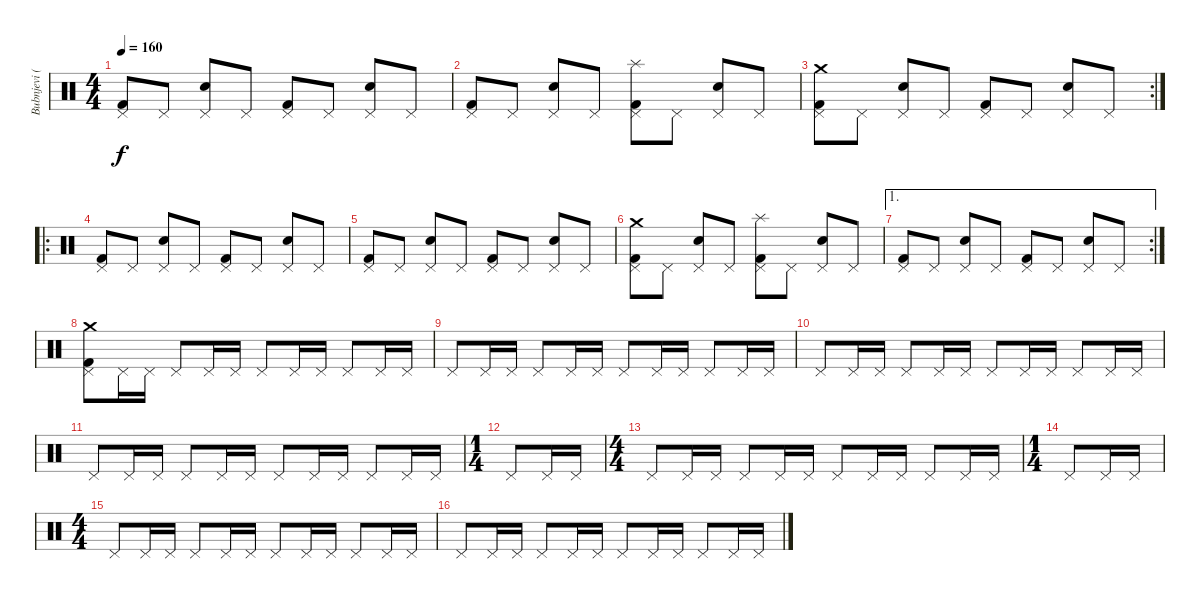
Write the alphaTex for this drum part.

\track ("Bubnjevi (Nasko Budimic)" "Bubnjevi (") {instrument percussion}
\staff {score}
\articulation defaults
\ts (4 4)
\tempo 160
\clef neutral
\ks c
("Pedal Hi-Hat (hit)" "Kick (hit) 2").8{dy f} "Pedal Hi-Hat (hit)".8 ("Pedal Hi-Hat (hit)" "Snare (hit) 2").8 "Pedal Hi-Hat (hit)".8 ("Pedal Hi-Hat (hit)" "Kick (hit) 2").8 "Pedal Hi-Hat (hit)".8 ("Pedal Hi-Hat (hit)" "Snare (hit) 2").8 "Pedal Hi-Hat (hit)".8 |
("Pedal Hi-Hat (hit)" "Kick (hit) 2").8 "Pedal Hi-Hat (hit)".8 ("Pedal Hi-Hat (hit)" "Snare (hit) 2").8 "Pedal Hi-Hat (hit)".8 ("Splash (hit)" "Pedal Hi-Hat (hit)" "Kick (hit) 2").8 "Pedal Hi-Hat (hit)".8 ("Pedal Hi-Hat (hit)" "Snare (hit) 2").8 "Pedal Hi-Hat (hit)".8 |
\rc 2
("Crash medium (hit)" "Pedal Hi-Hat (hit)" "Kick (hit) 2").8 "Pedal Hi-Hat (hit)".8 ("Pedal Hi-Hat (hit)" "Snare (hit) 2").8 "Pedal Hi-Hat (hit)".8 ("Pedal Hi-Hat (hit)" "Kick (hit) 2").8 "Pedal Hi-Hat (hit)".8 ("Pedal Hi-Hat (hit)" "Snare (hit) 2").8 "Pedal Hi-Hat (hit)".8 |
\ro
("Pedal Hi-Hat (hit)" "Kick (hit) 2").8 "Pedal Hi-Hat (hit)".8 ("Pedal Hi-Hat (hit)" "Snare (hit) 2").8 "Pedal Hi-Hat (hit)".8 ("Pedal Hi-Hat (hit)" "Kick (hit) 2").8 "Pedal Hi-Hat (hit)".8 ("Pedal Hi-Hat (hit)" "Snare (hit) 2").8 "Pedal Hi-Hat (hit)".8 |
("Pedal Hi-Hat (hit)" "Kick (hit) 2").8 "Pedal Hi-Hat (hit)".8 ("Pedal Hi-Hat (hit)" "Snare (hit) 2").8 "Pedal Hi-Hat (hit)".8 ("Pedal Hi-Hat (hit)" "Kick (hit) 2").8 "Pedal Hi-Hat (hit)".8 ("Pedal Hi-Hat (hit)" "Snare (hit) 2").8 "Pedal Hi-Hat (hit)".8 |
("Crash medium (hit)" "Pedal Hi-Hat (hit)" "Kick (hit) 2").8 "Pedal Hi-Hat (hit)".8 ("Pedal Hi-Hat (hit)" "Snare (hit) 2").8 "Pedal Hi-Hat (hit)".8 ("Splash (hit)" "Pedal Hi-Hat (hit)" "Kick (hit) 2").8 "Pedal Hi-Hat (hit)".8 ("Pedal Hi-Hat (hit)" "Snare (hit) 2").8 "Pedal Hi-Hat (hit)".8 |
\ae 1
\rc 2
("Pedal Hi-Hat (hit)" "Kick (hit) 2").8 "Pedal Hi-Hat (hit)".8 ("Pedal Hi-Hat (hit)" "Snare (hit) 2").8 "Pedal Hi-Hat (hit)".8 ("Pedal Hi-Hat (hit)" "Kick (hit) 2").8 "Pedal Hi-Hat (hit)".8 ("Pedal Hi-Hat (hit)" "Snare (hit) 2").8 "Pedal Hi-Hat (hit)".8 |
("Crash medium (hit)" "Pedal Hi-Hat (hit)" "Kick (hit) 2").8 "Pedal Hi-Hat (hit)".16 "Pedal Hi-Hat (hit)".16 "Pedal Hi-Hat (hit)".8 "Pedal Hi-Hat (hit)".16 "Pedal Hi-Hat (hit)".16 "Pedal Hi-Hat (hit)".8 "Pedal Hi-Hat (hit)".16 "Pedal Hi-Hat (hit)".16 "Pedal Hi-Hat (hit)".8 "Pedal Hi-Hat (hit)".16 "Pedal Hi-Hat (hit)".16 |
"Pedal Hi-Hat (hit)".8 "Pedal Hi-Hat (hit)".16 "Pedal Hi-Hat (hit)".16 "Pedal Hi-Hat (hit)".8 "Pedal Hi-Hat (hit)".16 "Pedal Hi-Hat (hit)".16 "Pedal Hi-Hat (hit)".8 "Pedal Hi-Hat (hit)".16 "Pedal Hi-Hat (hit)".16 "Pedal Hi-Hat (hit)".8 "Pedal Hi-Hat (hit)".16 "Pedal Hi-Hat (hit)".16 |
"Pedal Hi-Hat (hit)".8 "Pedal Hi-Hat (hit)".16 "Pedal Hi-Hat (hit)".16 "Pedal Hi-Hat (hit)".8 "Pedal Hi-Hat (hit)".16 "Pedal Hi-Hat (hit)".16 "Pedal Hi-Hat (hit)".8 "Pedal Hi-Hat (hit)".16 "Pedal Hi-Hat (hit)".16 "Pedal Hi-Hat (hit)".8 "Pedal Hi-Hat (hit)".16 "Pedal Hi-Hat (hit)".16 |
"Pedal Hi-Hat (hit)".8 "Pedal Hi-Hat (hit)".16 "Pedal Hi-Hat (hit)".16 "Pedal Hi-Hat (hit)".8 "Pedal Hi-Hat (hit)".16 "Pedal Hi-Hat (hit)".16 "Pedal Hi-Hat (hit)".8 "Pedal Hi-Hat (hit)".16 "Pedal Hi-Hat (hit)".16 "Pedal Hi-Hat (hit)".8 "Pedal Hi-Hat (hit)".16 "Pedal Hi-Hat (hit)".16 |
\ts (1 4)
"Pedal Hi-Hat (hit)".8 "Pedal Hi-Hat (hit)".16 "Pedal Hi-Hat (hit)".16 |
\ts (4 4)
"Pedal Hi-Hat (hit)".8 "Pedal Hi-Hat (hit)".16 "Pedal Hi-Hat (hit)".16 "Pedal Hi-Hat (hit)".8 "Pedal Hi-Hat (hit)".16 "Pedal Hi-Hat (hit)".16 "Pedal Hi-Hat (hit)".8 "Pedal Hi-Hat (hit)".16 "Pedal Hi-Hat (hit)".16 "Pedal Hi-Hat (hit)".8 "Pedal Hi-Hat (hit)".16 "Pedal Hi-Hat (hit)".16 |
\ts (1 4)
"Pedal Hi-Hat (hit)".8 "Pedal Hi-Hat (hit)".16 "Pedal Hi-Hat (hit)".16 |
\ts (4 4)
"Pedal Hi-Hat (hit)".8 "Pedal Hi-Hat (hit)".16 "Pedal Hi-Hat (hit)".16 "Pedal Hi-Hat (hit)".8 "Pedal Hi-Hat (hit)".16 "Pedal Hi-Hat (hit)".16 "Pedal Hi-Hat (hit)".8 "Pedal Hi-Hat (hit)".16 "Pedal Hi-Hat (hit)".16 "Pedal Hi-Hat (hit)".8 "Pedal Hi-Hat (hit)".16 "Pedal Hi-Hat (hit)".16 |
"Pedal Hi-Hat (hit)".8 "Pedal Hi-Hat (hit)".16 "Pedal Hi-Hat (hit)".16 "Pedal Hi-Hat (hit)".8 "Pedal Hi-Hat (hit)".16 "Pedal Hi-Hat (hit)".16 "Pedal Hi-Hat (hit)".8 "Pedal Hi-Hat (hit)".16 "Pedal Hi-Hat (hit)".16 "Pedal Hi-Hat (hit)".8 "Pedal Hi-Hat (hit)".16 "Pedal Hi-Hat (hit)".16
